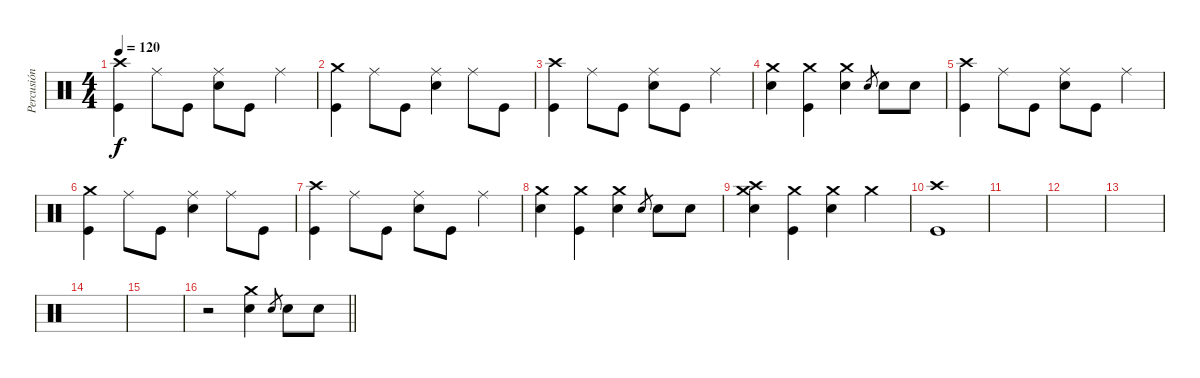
\track ("Percusión" "Percusión") {instrument percussion}
\staff {score}
\articulation defaults
\ts (4 4)
\tempo 120
\clef neutral
\ks c
("Crash high (hit)" "Kick (hit)").4{dy f} "Ride (middle)".8 "Kick (hit)".8 ("Ride (middle)" "Electric Snare (hit)").8 "Kick (hit)".8 "Ride (middle)".4 |
("Crash medium (hit)" "Kick (hit)").4 "Ride (middle)".8 "Kick (hit)".8 ("Ride (middle)" "Electric Snare (hit)").4 "Ride (middle)".8 "Kick (hit)".8 |
("Crash high (hit)" "Kick (hit)").4 "Ride (middle)".8 "Kick (hit)".8 ("Ride (middle)" "Electric Snare (hit)").8 "Kick (hit)".8 "Ride (middle)".4 |
("Crash medium (hit)" "Electric Snare (hit)").4 ("Crash medium (hit)" "Kick (hit)").4 ("Crash medium (hit)" "Electric Snare (hit)").4 "Electric Snare (hit)".8{gr} "Electric Snare (hit)".8 "Electric Snare (hit)".8 |
("Crash high (hit)" "Kick (hit)").4 "Ride (middle)".8 "Kick (hit)".8 ("Ride (middle)" "Electric Snare (hit)").8 "Kick (hit)".8 "Ride (middle)".4 |
("Crash medium (hit)" "Kick (hit)").4 "Ride (middle)".8 "Kick (hit)".8 ("Ride (middle)" "Electric Snare (hit)").4 "Ride (middle)".8 "Kick (hit)".8 |
("Crash high (hit)" "Kick (hit)").4 "Ride (middle)".8 "Kick (hit)".8 ("Ride (middle)" "Electric Snare (hit)").8 "Kick (hit)".8 "Ride (middle)".4 |
("Crash medium (hit)" "Electric Snare (hit)").4 ("Crash medium (hit)" "Kick (hit)").4 ("Crash medium (hit)" "Electric Snare (hit)").4 "Electric Snare (hit)".8{gr} "Electric Snare (hit)".8 "Electric Snare (hit)".8 |
("Crash high (hit)" "Crash medium (hit)" "Electric Snare (hit)").4 ("Crash medium (hit)" "Kick (hit)").4 ("Crash medium (hit)" "Electric Snare (hit)").4 "Crash medium (hit)".4 |
("Crash high (hit)" "Kick (hit)").1 |
|
|
|
|
|
\barLineRight lightlight
r.2 ("Crash medium (hit)" "Electric Snare (hit)").4 "Electric Snare (hit)".8{gr} "Electric Snare (hit)".8 "Electric Snare (hit)".8
